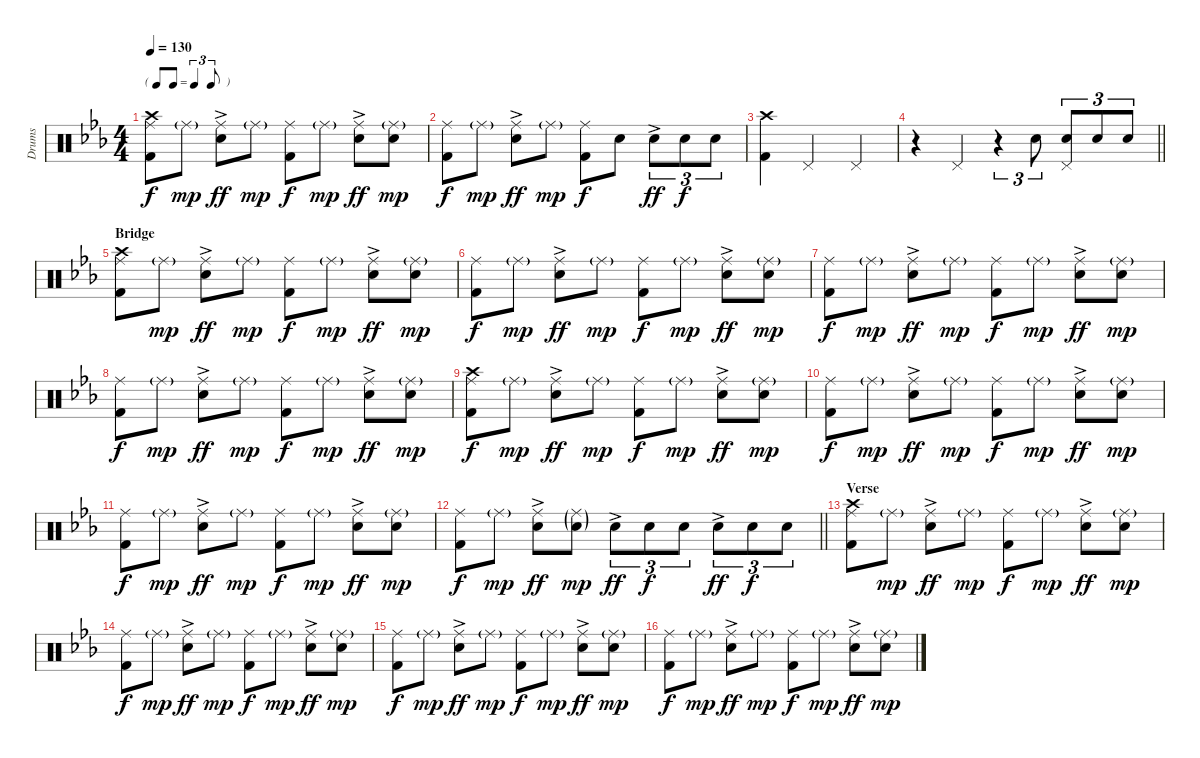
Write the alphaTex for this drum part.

\track ("Drums" "Drums") {instrument percussion}
\staff {score}
\articulation defaults
\ts (4 4)
\tf triplet8th
\tempo 130
\clef neutral
\ks eb
("Ride (middle)" "Kick (hit) 2" "Crash high (hit)").8{dy f} "Ride (middle)"{g}.8{dy mp} ("Ride (middle)" "Electric Snare (hit)"{ac}).8{dy ff} "Ride (middle)"{g}.8{dy mp} ("Ride (middle)" "Kick (hit) 2").8{dy f} "Ride (middle)"{g}.8{dy mp} ("Ride (middle)" "Electric Snare (hit)"{ac}).8{dy ff} ("Ride (middle)"{g} "Electric Snare (hit)").8{dy mp} |
("Ride (middle)" "Kick (hit) 2").8{dy f} "Ride (middle)"{g}.8{dy mp} ("Ride (middle)" "Electric Snare (hit)"{ac}).8{dy ff} "Ride (middle)"{g}.8{dy mp} ("Ride (middle)" "Kick (hit) 2").8{dy f} "Electric Snare (hit)".8 "Electric Snare (hit)"{ac}.8{tu (3 2) dy ff} "Electric Snare (hit)".8{tu (3 2) dy f} "Electric Snare (hit)".8{tu (3 2)} |
("Kick (hit) 2" "Crash high (hit)").4 "Pedal Hi-Hat (hit)".2 "Pedal Hi-Hat (hit)".4 |
\barLineRight lightlight
r.4 "Pedal Hi-Hat (hit)".4 r.4{tu (3 2)} "Electric Snare (hit)".8{tu (3 2)} ("Pedal Hi-Hat (hit)" "Electric Snare (hit)").8{tu (3 2)} "Electric Snare (hit)".8{tu (3 2)} "Electric Snare (hit)".8{tu (3 2)} |
\section ("" "Bridge")
("Ride (middle)" "Kick (hit) 2" "Crash high (hit)").8 "Ride (middle)"{g}.8{dy mp} ("Ride (middle)" "Electric Snare (hit)"{ac}).8{dy ff} "Ride (middle)"{g}.8{dy mp} ("Ride (middle)" "Kick (hit) 2").8{dy f} "Ride (middle)"{g}.8{dy mp} ("Ride (middle)" "Electric Snare (hit)"{ac}).8{dy ff} ("Ride (middle)"{g} "Electric Snare (hit)").8{dy mp} |
("Ride (middle)" "Kick (hit) 2").8{dy f} "Ride (middle)"{g}.8{dy mp} ("Ride (middle)" "Electric Snare (hit)"{ac}).8{dy ff} "Ride (middle)"{g}.8{dy mp} ("Ride (middle)" "Kick (hit) 2").8{dy f} "Ride (middle)"{g}.8{dy mp} ("Ride (middle)" "Electric Snare (hit)"{ac}).8{dy ff} ("Ride (middle)"{g} "Electric Snare (hit)").8{dy mp} |
("Ride (middle)" "Kick (hit) 2").8{dy f} "Ride (middle)"{g}.8{dy mp} ("Ride (middle)" "Electric Snare (hit)"{ac}).8{dy ff} "Ride (middle)"{g}.8{dy mp} ("Ride (middle)" "Kick (hit) 2").8{dy f} "Ride (middle)"{g}.8{dy mp} ("Ride (middle)" "Electric Snare (hit)"{ac}).8{dy ff} ("Ride (middle)"{g} "Electric Snare (hit)").8{dy mp} |
("Ride (middle)" "Kick (hit) 2").8{dy f} "Ride (middle)"{g}.8{dy mp} ("Ride (middle)" "Electric Snare (hit)"{ac}).8{dy ff} "Ride (middle)"{g}.8{dy mp} ("Ride (middle)" "Kick (hit) 2").8{dy f} "Ride (middle)"{g}.8{dy mp} ("Ride (middle)" "Electric Snare (hit)"{ac}).8{dy ff} ("Ride (middle)"{g} "Electric Snare (hit)").8{dy mp} |
("Ride (middle)" "Kick (hit) 2" "Crash high (hit)").8{dy f} "Ride (middle)"{g}.8{dy mp} ("Ride (middle)" "Electric Snare (hit)"{ac}).8{dy ff} "Ride (middle)"{g}.8{dy mp} ("Ride (middle)" "Kick (hit) 2").8{dy f} "Ride (middle)"{g}.8{dy mp} ("Ride (middle)" "Electric Snare (hit)"{ac}).8{dy ff} ("Ride (middle)"{g} "Electric Snare (hit)").8{dy mp} |
("Ride (middle)" "Kick (hit) 2").8{dy f} "Ride (middle)"{g}.8{dy mp} ("Ride (middle)" "Electric Snare (hit)"{ac}).8{dy ff} "Ride (middle)"{g}.8{dy mp} ("Ride (middle)" "Kick (hit) 2").8{dy f} "Ride (middle)"{g}.8{dy mp} ("Ride (middle)" "Electric Snare (hit)"{ac}).8{dy ff} ("Ride (middle)"{g} "Electric Snare (hit)").8{dy mp} |
("Ride (middle)" "Kick (hit) 2").8{dy f} "Ride (middle)"{g}.8{dy mp} ("Ride (middle)" "Electric Snare (hit)"{ac}).8{dy ff} "Ride (middle)"{g}.8{dy mp} ("Ride (middle)" "Kick (hit) 2").8{dy f} "Ride (middle)"{g}.8{dy mp} ("Ride (middle)" "Electric Snare (hit)"{ac}).8{dy ff} ("Ride (middle)"{g} "Electric Snare (hit)").8{dy mp} |
\barLineRight lightlight
("Ride (middle)" "Kick (hit) 2").8{dy f} "Ride (middle)"{g}.8{dy mp} ("Ride (middle)" "Electric Snare (hit)"{ac}).8{dy ff} ("Ride (middle)"{g} "Electric Snare (hit)"{g}).8{dy mp} "Electric Snare (hit)"{ac}.8{tu (3 2) dy ff} "Electric Snare (hit)".8{tu (3 2) dy f} "Electric Snare (hit)".8{tu (3 2)} "Electric Snare (hit)"{ac}.8{tu (3 2) dy ff} "Electric Snare (hit)".8{tu (3 2) dy f} "Electric Snare (hit)".8{tu (3 2)} |
\section ("" "Verse")
("Ride (middle)" "Kick (hit) 2" "Crash high (hit)").8 "Ride (middle)"{g}.8{dy mp} ("Ride (middle)" "Electric Snare (hit)"{ac}).8{dy ff} "Ride (middle)"{g}.8{dy mp} ("Ride (middle)" "Kick (hit) 2").8{dy f} "Ride (middle)"{g}.8{dy mp} ("Ride (middle)" "Electric Snare (hit)"{ac}).8{dy ff} ("Ride (middle)"{g} "Electric Snare (hit)").8{dy mp} |
("Ride (middle)" "Kick (hit) 2").8{dy f} "Ride (middle)"{g}.8{dy mp} ("Ride (middle)" "Electric Snare (hit)"{ac}).8{dy ff} "Ride (middle)"{g}.8{dy mp} ("Ride (middle)" "Kick (hit) 2").8{dy f} "Ride (middle)"{g}.8{dy mp} ("Ride (middle)" "Electric Snare (hit)"{ac}).8{dy ff} ("Ride (middle)"{g} "Electric Snare (hit)").8{dy mp} |
("Ride (middle)" "Kick (hit) 2").8{dy f} "Ride (middle)"{g}.8{dy mp} ("Ride (middle)" "Electric Snare (hit)"{ac}).8{dy ff} "Ride (middle)"{g}.8{dy mp} ("Ride (middle)" "Kick (hit) 2").8{dy f} "Ride (middle)"{g}.8{dy mp} ("Ride (middle)" "Electric Snare (hit)"{ac}).8{dy ff} ("Ride (middle)"{g} "Electric Snare (hit)").8{dy mp} |
("Ride (middle)" "Kick (hit) 2").8{dy f} "Ride (middle)"{g}.8{dy mp} ("Ride (middle)" "Electric Snare (hit)"{ac}).8{dy ff} "Ride (middle)"{g}.8{dy mp} ("Ride (middle)" "Kick (hit) 2").8{dy f} "Ride (middle)"{g}.8{dy mp} ("Ride (middle)" "Electric Snare (hit)"{ac}).8{dy ff} ("Ride (middle)"{g} "Electric Snare (hit)").8{dy mp}
